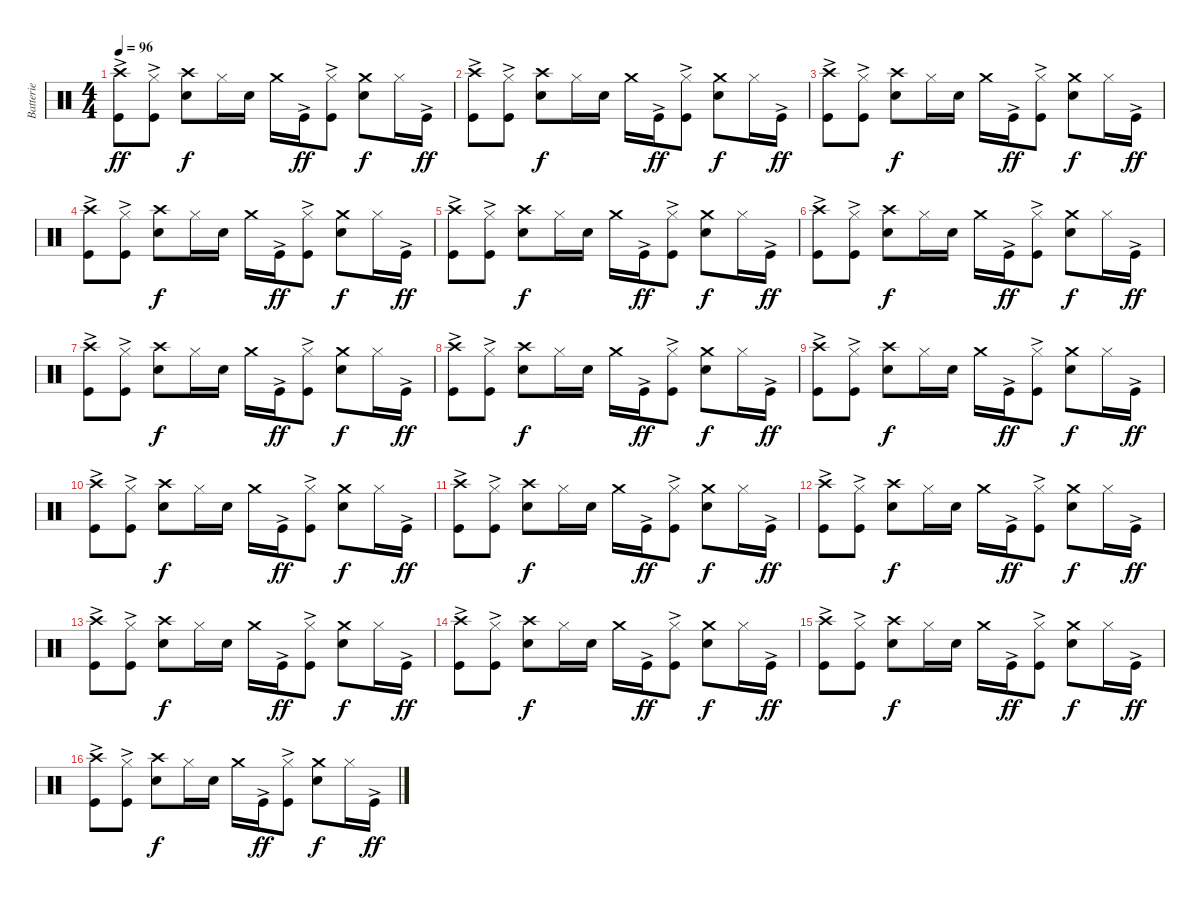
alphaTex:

\track ("Batterie" "Batterie") {instrument percussion}
\staff {score}
\articulation defaults
\ts (4 4)
\tempo 96
\clef neutral
\ks c
("Crash high (hit)" "Kick (hit)"{ac}).8{dy ff} ("Hi-Hat (closed)" "Kick (hit)"{ac}).8 ("Crash high (hit)" "Snare (hit) 2").8{dy f} "Hi-Hat (closed)".16 "Snare (hit) 2".16 "Crash medium (hit)".16 "Kick (hit)"{ac}.16{dy ff} ("Hi-Hat (closed)" "Kick (hit)"{ac}).8 ("Crash medium (hit)" "Snare (hit) 2").8{dy f} "Hi-Hat (closed)".16 "Kick (hit)"{ac}.16{dy ff} |
("Crash high (hit)" "Kick (hit)"{ac}).8 ("Hi-Hat (closed)" "Kick (hit)"{ac}).8 ("Crash high (hit)" "Snare (hit) 2").8{dy f} "Hi-Hat (closed)".16 "Snare (hit) 2".16 "Crash medium (hit)".16 "Kick (hit)"{ac}.16{dy ff} ("Hi-Hat (closed)" "Kick (hit)"{ac}).8 ("Crash medium (hit)" "Snare (hit) 2").8{dy f} "Hi-Hat (closed)".16 "Kick (hit)"{ac}.16{dy ff} |
("Crash high (hit)" "Kick (hit)"{ac}).8 ("Hi-Hat (closed)" "Kick (hit)"{ac}).8 ("Crash high (hit)" "Snare (hit) 2").8{dy f} "Hi-Hat (closed)".16 "Snare (hit) 2".16 "Crash medium (hit)".16 "Kick (hit)"{ac}.16{dy ff} ("Hi-Hat (closed)" "Kick (hit)"{ac}).8 ("Crash medium (hit)" "Snare (hit) 2").8{dy f} "Hi-Hat (closed)".16 "Kick (hit)"{ac}.16{dy ff} |
("Crash high (hit)" "Kick (hit)"{ac}).8 ("Hi-Hat (closed)" "Kick (hit)"{ac}).8 ("Crash high (hit)" "Snare (hit) 2").8{dy f} "Hi-Hat (closed)".16 "Snare (hit) 2".16 "Crash medium (hit)".16 "Kick (hit)"{ac}.16{dy ff} ("Hi-Hat (closed)" "Kick (hit)"{ac}).8 ("Crash medium (hit)" "Snare (hit) 2").8{dy f} "Hi-Hat (closed)".16 "Kick (hit)"{ac}.16{dy ff} |
("Crash high (hit)" "Kick (hit)"{ac}).8 ("Hi-Hat (closed)" "Kick (hit)"{ac}).8 ("Crash high (hit)" "Snare (hit) 2").8{dy f} "Hi-Hat (closed)".16 "Snare (hit) 2".16 "Crash medium (hit)".16 "Kick (hit)"{ac}.16{dy ff} ("Hi-Hat (closed)" "Kick (hit)"{ac}).8 ("Crash medium (hit)" "Snare (hit) 2").8{dy f} "Hi-Hat (closed)".16 "Kick (hit)"{ac}.16{dy ff} |
("Crash high (hit)" "Kick (hit)"{ac}).8 ("Hi-Hat (closed)" "Kick (hit)"{ac}).8 ("Crash high (hit)" "Snare (hit) 2").8{dy f} "Hi-Hat (closed)".16 "Snare (hit) 2".16 "Crash medium (hit)".16 "Kick (hit)"{ac}.16{dy ff} ("Hi-Hat (closed)" "Kick (hit)"{ac}).8 ("Crash medium (hit)" "Snare (hit) 2").8{dy f} "Hi-Hat (closed)".16 "Kick (hit)"{ac}.16{dy ff} |
("Crash high (hit)" "Kick (hit)"{ac}).8 ("Hi-Hat (closed)" "Kick (hit)"{ac}).8 ("Crash high (hit)" "Snare (hit) 2").8{dy f} "Hi-Hat (closed)".16 "Snare (hit) 2".16 "Crash medium (hit)".16 "Kick (hit)"{ac}.16{dy ff} ("Hi-Hat (closed)" "Kick (hit)"{ac}).8 ("Crash medium (hit)" "Snare (hit) 2").8{dy f} "Hi-Hat (closed)".16 "Kick (hit)"{ac}.16{dy ff} |
("Crash high (hit)" "Kick (hit)"{ac}).8 ("Hi-Hat (closed)" "Kick (hit)"{ac}).8 ("Crash high (hit)" "Snare (hit) 2").8{dy f} "Hi-Hat (closed)".16 "Snare (hit) 2".16 "Crash medium (hit)".16 "Kick (hit)"{ac}.16{dy ff} ("Hi-Hat (closed)" "Kick (hit)"{ac}).8 ("Crash medium (hit)" "Snare (hit) 2").8{dy f} "Hi-Hat (closed)".16 "Kick (hit)"{ac}.16{dy ff} |
("Crash high (hit)" "Kick (hit)"{ac}).8 ("Hi-Hat (closed)" "Kick (hit)"{ac}).8 ("Crash high (hit)" "Snare (hit) 2").8{dy f} "Hi-Hat (closed)".16 "Snare (hit) 2".16 "Crash medium (hit)".16 "Kick (hit)"{ac}.16{dy ff} ("Hi-Hat (closed)" "Kick (hit)"{ac}).8 ("Crash medium (hit)" "Snare (hit) 2").8{dy f} "Hi-Hat (closed)".16 "Kick (hit)"{ac}.16{dy ff} |
("Crash high (hit)" "Kick (hit)"{ac}).8 ("Hi-Hat (closed)" "Kick (hit)"{ac}).8 ("Crash high (hit)" "Snare (hit) 2").8{dy f} "Hi-Hat (closed)".16 "Snare (hit) 2".16 "Crash medium (hit)".16 "Kick (hit)"{ac}.16{dy ff} ("Hi-Hat (closed)" "Kick (hit)"{ac}).8 ("Crash medium (hit)" "Snare (hit) 2").8{dy f} "Hi-Hat (closed)".16 "Kick (hit)"{ac}.16{dy ff} |
("Crash high (hit)" "Kick (hit)"{ac}).8 ("Hi-Hat (closed)" "Kick (hit)"{ac}).8 ("Crash high (hit)" "Snare (hit) 2").8{dy f} "Hi-Hat (closed)".16 "Snare (hit) 2".16 "Crash medium (hit)".16 "Kick (hit)"{ac}.16{dy ff} ("Hi-Hat (closed)" "Kick (hit)"{ac}).8 ("Crash medium (hit)" "Snare (hit) 2").8{dy f} "Hi-Hat (closed)".16 "Kick (hit)"{ac}.16{dy ff} |
("Crash high (hit)" "Kick (hit)"{ac}).8 ("Hi-Hat (closed)" "Kick (hit)"{ac}).8 ("Crash high (hit)" "Snare (hit) 2").8{dy f} "Hi-Hat (closed)".16 "Snare (hit) 2".16 "Crash medium (hit)".16 "Kick (hit)"{ac}.16{dy ff} ("Hi-Hat (closed)" "Kick (hit)"{ac}).8 ("Crash medium (hit)" "Snare (hit) 2").8{dy f} "Hi-Hat (closed)".16 "Kick (hit)"{ac}.16{dy ff} |
("Crash high (hit)" "Kick (hit)"{ac}).8 ("Hi-Hat (closed)" "Kick (hit)"{ac}).8 ("Crash high (hit)" "Snare (hit) 2").8{dy f} "Hi-Hat (closed)".16 "Snare (hit) 2".16 "Crash medium (hit)".16 "Kick (hit)"{ac}.16{dy ff} ("Hi-Hat (closed)" "Kick (hit)"{ac}).8 ("Crash medium (hit)" "Snare (hit) 2").8{dy f} "Hi-Hat (closed)".16 "Kick (hit)"{ac}.16{dy ff} |
("Crash high (hit)" "Kick (hit)"{ac}).8 ("Hi-Hat (closed)" "Kick (hit)"{ac}).8 ("Crash high (hit)" "Snare (hit) 2").8{dy f} "Hi-Hat (closed)".16 "Snare (hit) 2".16 "Crash medium (hit)".16 "Kick (hit)"{ac}.16{dy ff} ("Hi-Hat (closed)" "Kick (hit)"{ac}).8 ("Crash medium (hit)" "Snare (hit) 2").8{dy f} "Hi-Hat (closed)".16 "Kick (hit)"{ac}.16{dy ff} |
("Crash high (hit)" "Kick (hit)"{ac}).8 ("Hi-Hat (closed)" "Kick (hit)"{ac}).8 ("Crash high (hit)" "Snare (hit) 2").8{dy f} "Hi-Hat (closed)".16 "Snare (hit) 2".16 "Crash medium (hit)".16 "Kick (hit)"{ac}.16{dy ff} ("Hi-Hat (closed)" "Kick (hit)"{ac}).8 ("Crash medium (hit)" "Snare (hit) 2").8{dy f} "Hi-Hat (closed)".16 "Kick (hit)"{ac}.16{dy ff} |
("Crash high (hit)" "Kick (hit)"{ac}).8 ("Hi-Hat (closed)" "Kick (hit)"{ac}).8 ("Crash high (hit)" "Snare (hit) 2").8{dy f} "Hi-Hat (closed)".16 "Snare (hit) 2".16 "Crash medium (hit)".16 "Kick (hit)"{ac}.16{dy ff} ("Hi-Hat (closed)" "Kick (hit)"{ac}).8 ("Crash medium (hit)" "Snare (hit) 2").8{dy f} "Hi-Hat (closed)".16 "Kick (hit)"{ac}.16{dy ff}
